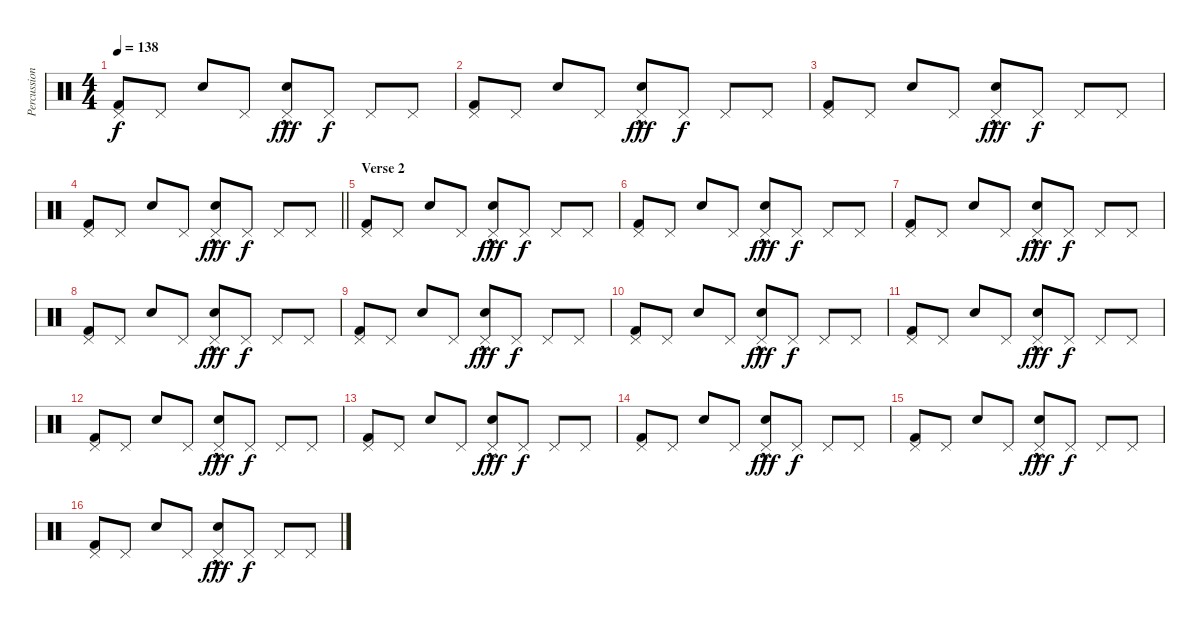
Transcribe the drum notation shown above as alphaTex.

\track ("Percussion" "Percussion") {instrument percussion}
\staff {score}
\articulation defaults
\ts (4 4)
\tempo 138
\clef neutral
\ks c
("Kick (hit) 2" "Pedal Hi-Hat (hit)").8{dy f} "Pedal Hi-Hat (hit)".8 "Snare (hit)".8 "Pedal Hi-Hat (hit)".8 ("Snare (hit) 2"{hac} "Pedal Hi-Hat (hit)").8{dy fff} "Pedal Hi-Hat (hit)".8{dy f} "Pedal Hi-Hat (hit)".8 "Pedal Hi-Hat (hit)".8 |
("Kick (hit) 2" "Pedal Hi-Hat (hit)").8 "Pedal Hi-Hat (hit)".8 "Snare (hit)".8 "Pedal Hi-Hat (hit)".8 ("Snare (hit) 2"{hac} "Pedal Hi-Hat (hit)").8{dy fff} "Pedal Hi-Hat (hit)".8{dy f} "Pedal Hi-Hat (hit)".8 "Pedal Hi-Hat (hit)".8 |
("Kick (hit) 2" "Pedal Hi-Hat (hit)").8 "Pedal Hi-Hat (hit)".8 "Snare (hit)".8 "Pedal Hi-Hat (hit)".8 ("Snare (hit) 2"{hac} "Pedal Hi-Hat (hit)").8{dy fff} "Pedal Hi-Hat (hit)".8{dy f} "Pedal Hi-Hat (hit)".8 "Pedal Hi-Hat (hit)".8 |
\barLineRight lightlight
("Kick (hit) 2" "Pedal Hi-Hat (hit)").8 "Pedal Hi-Hat (hit)".8 "Snare (hit)".8 "Pedal Hi-Hat (hit)".8 ("Snare (hit) 2"{hac} "Pedal Hi-Hat (hit)").8{dy fff} "Pedal Hi-Hat (hit)".8{dy f} "Pedal Hi-Hat (hit)".8 "Pedal Hi-Hat (hit)".8 |
\section ("" "Verse 2")
("Kick (hit) 2" "Pedal Hi-Hat (hit)").8 "Pedal Hi-Hat (hit)".8 "Snare (hit)".8 "Pedal Hi-Hat (hit)".8 ("Snare (hit) 2"{hac} "Pedal Hi-Hat (hit)").8{dy fff} "Pedal Hi-Hat (hit)".8{dy f} "Pedal Hi-Hat (hit)".8 "Pedal Hi-Hat (hit)".8 |
("Kick (hit) 2" "Pedal Hi-Hat (hit)").8 "Pedal Hi-Hat (hit)".8 "Snare (hit)".8 "Pedal Hi-Hat (hit)".8 ("Snare (hit) 2"{hac} "Pedal Hi-Hat (hit)").8{dy fff} "Pedal Hi-Hat (hit)".8{dy f} "Pedal Hi-Hat (hit)".8 "Pedal Hi-Hat (hit)".8 |
("Kick (hit) 2" "Pedal Hi-Hat (hit)").8 "Pedal Hi-Hat (hit)".8 "Snare (hit)".8 "Pedal Hi-Hat (hit)".8 ("Snare (hit) 2"{hac} "Pedal Hi-Hat (hit)").8{dy fff} "Pedal Hi-Hat (hit)".8{dy f} "Pedal Hi-Hat (hit)".8 "Pedal Hi-Hat (hit)".8 |
("Kick (hit) 2" "Pedal Hi-Hat (hit)").8 "Pedal Hi-Hat (hit)".8 "Snare (hit)".8 "Pedal Hi-Hat (hit)".8 ("Snare (hit) 2"{hac} "Pedal Hi-Hat (hit)").8{dy fff} "Pedal Hi-Hat (hit)".8{dy f} "Pedal Hi-Hat (hit)".8 "Pedal Hi-Hat (hit)".8 |
("Kick (hit) 2" "Pedal Hi-Hat (hit)").8 "Pedal Hi-Hat (hit)".8 "Snare (hit)".8 "Pedal Hi-Hat (hit)".8 ("Snare (hit) 2"{hac} "Pedal Hi-Hat (hit)").8{dy fff} "Pedal Hi-Hat (hit)".8{dy f} "Pedal Hi-Hat (hit)".8 "Pedal Hi-Hat (hit)".8 |
("Kick (hit) 2" "Pedal Hi-Hat (hit)").8 "Pedal Hi-Hat (hit)".8 "Snare (hit)".8 "Pedal Hi-Hat (hit)".8 ("Snare (hit) 2"{hac} "Pedal Hi-Hat (hit)").8{dy fff} "Pedal Hi-Hat (hit)".8{dy f} "Pedal Hi-Hat (hit)".8 "Pedal Hi-Hat (hit)".8 |
("Kick (hit) 2" "Pedal Hi-Hat (hit)").8 "Pedal Hi-Hat (hit)".8 "Snare (hit)".8 "Pedal Hi-Hat (hit)".8 ("Snare (hit) 2"{hac} "Pedal Hi-Hat (hit)").8{dy fff} "Pedal Hi-Hat (hit)".8{dy f} "Pedal Hi-Hat (hit)".8 "Pedal Hi-Hat (hit)".8 |
("Kick (hit) 2" "Pedal Hi-Hat (hit)").8 "Pedal Hi-Hat (hit)".8 "Snare (hit)".8 "Pedal Hi-Hat (hit)".8 ("Snare (hit) 2"{hac} "Pedal Hi-Hat (hit)").8{dy fff} "Pedal Hi-Hat (hit)".8{dy f} "Pedal Hi-Hat (hit)".8 "Pedal Hi-Hat (hit)".8 |
("Kick (hit) 2" "Pedal Hi-Hat (hit)").8 "Pedal Hi-Hat (hit)".8 "Snare (hit)".8 "Pedal Hi-Hat (hit)".8 ("Snare (hit) 2"{hac} "Pedal Hi-Hat (hit)").8{dy fff} "Pedal Hi-Hat (hit)".8{dy f} "Pedal Hi-Hat (hit)".8 "Pedal Hi-Hat (hit)".8 |
("Kick (hit) 2" "Pedal Hi-Hat (hit)").8 "Pedal Hi-Hat (hit)".8 "Snare (hit)".8 "Pedal Hi-Hat (hit)".8 ("Snare (hit) 2"{hac} "Pedal Hi-Hat (hit)").8{dy fff} "Pedal Hi-Hat (hit)".8{dy f} "Pedal Hi-Hat (hit)".8 "Pedal Hi-Hat (hit)".8 |
("Kick (hit) 2" "Pedal Hi-Hat (hit)").8 "Pedal Hi-Hat (hit)".8 "Snare (hit)".8 "Pedal Hi-Hat (hit)".8 ("Snare (hit) 2"{hac} "Pedal Hi-Hat (hit)").8{dy fff} "Pedal Hi-Hat (hit)".8{dy f} "Pedal Hi-Hat (hit)".8 "Pedal Hi-Hat (hit)".8 |
("Kick (hit) 2" "Pedal Hi-Hat (hit)").8 "Pedal Hi-Hat (hit)".8 "Snare (hit)".8 "Pedal Hi-Hat (hit)".8 ("Snare (hit) 2"{hac} "Pedal Hi-Hat (hit)").8{dy fff} "Pedal Hi-Hat (hit)".8{dy f} "Pedal Hi-Hat (hit)".8 "Pedal Hi-Hat (hit)".8
